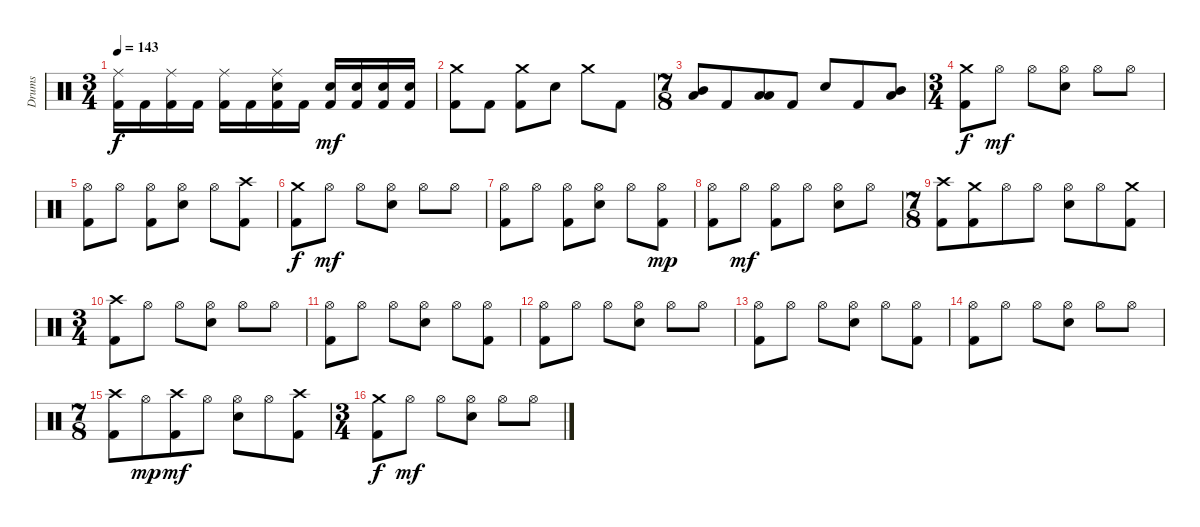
\track ("Drums" "Drums") {instrument percussion}
\staff {score}
\articulation defaults
\ts (3 4)
\tempo 143
\clef neutral
\ks c
("Ride (middle)" "Kick (hit) 2").16{dy f} "Kick (hit) 2".16 ("Ride (middle)" "Kick (hit) 2").16 "Kick (hit) 2".16 ("Ride (middle)" "Kick (hit) 2").16 "Kick (hit) 2".16 ("Ride (middle)" "Electric Snare (hit)" "Kick (hit) 2").16 "Kick (hit) 2".16 ("Electric Snare (hit)" "Kick (hit) 2").16{dy mf} ("Electric Snare (hit)" "Kick (hit) 2").16 ("Electric Snare (hit)" "Kick (hit) 2").16 ("Electric Snare (hit)" "Kick (hit) 2").16 |
("Crash medium (hit)" "Kick (hit) 2").8 "Kick (hit) 2".8 ("Crash medium (hit)" "Kick (hit) 2").8 "Electric Snare (hit)".8 "Crash medium (hit)".8 "Kick (hit) 2".8 |
\ts (7 8)
("Mid Tom (hit)" "Low Tom (hit)").8 "Kick (hit) 2".8 ("Low Tom (hit)" "Low Tom (hit)").8 "Kick (hit) 2".8 "Electric Snare (hit)".8 "Kick (hit) 2".8 ("Mid Tom (hit)" "Low Tom (hit)").8 |
\ts (3 4)
("Crash medium (hit)" "Kick (hit) 2").8{dy f} "Hi-Hat (open)".8{dy mf} "Hi-Hat (open)".8 ("Hi-Hat (open)" "Electric Snare (hit)").8 "Hi-Hat (open)".8 "Hi-Hat (open)".8 |
("Hi-Hat (open)" "Kick (hit) 2").8 "Hi-Hat (open)".8 ("Hi-Hat (open)" "Kick (hit) 2").8 ("Hi-Hat (open)" "Electric Snare (hit)").8 "Hi-Hat (open)".8 ("Crash high (hit)" "Kick (hit) 2").8 |
("Crash medium (hit)" "Kick (hit) 2").8{dy f} "Hi-Hat (open)".8{dy mf} "Hi-Hat (open)".8 ("Hi-Hat (open)" "Electric Snare (hit)").8 "Hi-Hat (open)".8 "Hi-Hat (open)".8 |
("Hi-Hat (open)" "Kick (hit) 2").8 "Hi-Hat (open)".8 ("Hi-Hat (open)" "Kick (hit) 2").8 ("Hi-Hat (open)" "Electric Snare (hit)").8 "Hi-Hat (open)".8 ("Hi-Hat (open)" "Kick (hit) 2").8{dy mp} |
("Hi-Hat (open)" "Kick (hit) 2").8 "Hi-Hat (open)".8{dy mf} ("Hi-Hat (open)" "Kick (hit) 2").8 "Hi-Hat (open)".8 ("Hi-Hat (open)" "Electric Snare (hit)").8 "Hi-Hat (open)".8 |
\ts (7 8)
("Crash high (hit)" "Kick (hit) 2").8 ("Crash medium (hit)" "Kick (hit) 2").8 "Hi-Hat (open)".8 "Hi-Hat (open)".8 ("Hi-Hat (open)" "Electric Snare (hit)").8 "Hi-Hat (open)".8 ("Crash medium (hit)" "Kick (hit) 2").8 |
\ts (3 4)
("Crash high (hit)" "Kick (hit) 2").8 "Hi-Hat (open)".8 "Hi-Hat (open)".8 ("Hi-Hat (open)" "Electric Snare (hit)").8 "Hi-Hat (open)".8 "Hi-Hat (open)".8 |
("Hi-Hat (open)" "Kick (hit) 2").8 "Hi-Hat (open)".8 "Hi-Hat (open)".8 ("Hi-Hat (open)" "Electric Snare (hit)").8 "Hi-Hat (open)".8 ("Hi-Hat (open)" "Kick (hit) 2").8 |
("Hi-Hat (open)" "Kick (hit) 2").8 "Hi-Hat (open)".8 "Hi-Hat (open)".8 ("Hi-Hat (open)" "Electric Snare (hit)").8 "Hi-Hat (open)".8 "Hi-Hat (open)".8 |
("Hi-Hat (open)" "Kick (hit) 2").8 "Hi-Hat (open)".8 "Hi-Hat (open)".8 ("Hi-Hat (open)" "Electric Snare (hit)").8 "Hi-Hat (open)".8 ("Hi-Hat (open)" "Kick (hit) 2").8 |
("Hi-Hat (open)" "Kick (hit) 2").8 "Hi-Hat (open)".8 "Hi-Hat (open)".8 ("Hi-Hat (open)" "Electric Snare (hit)").8 "Hi-Hat (open)".8 "Hi-Hat (open)".8 |
\ts (7 8)
("Crash high (hit)" "Kick (hit) 2").8 "Hi-Hat (open)".8{dy mp} ("Crash high (hit)" "Kick (hit) 2").8{dy mf} "Hi-Hat (open)".8 ("Hi-Hat (open)" "Electric Snare (hit)").8 "Hi-Hat (open)".8 ("Crash high (hit)" "Kick (hit) 2").8 |
\ts (3 4)
("Crash medium (hit)" "Kick (hit) 2").8{dy f} "Hi-Hat (open)".8{dy mf} "Hi-Hat (open)".8 ("Hi-Hat (open)" "Electric Snare (hit)").8 "Hi-Hat (open)".8 "Hi-Hat (open)".8
